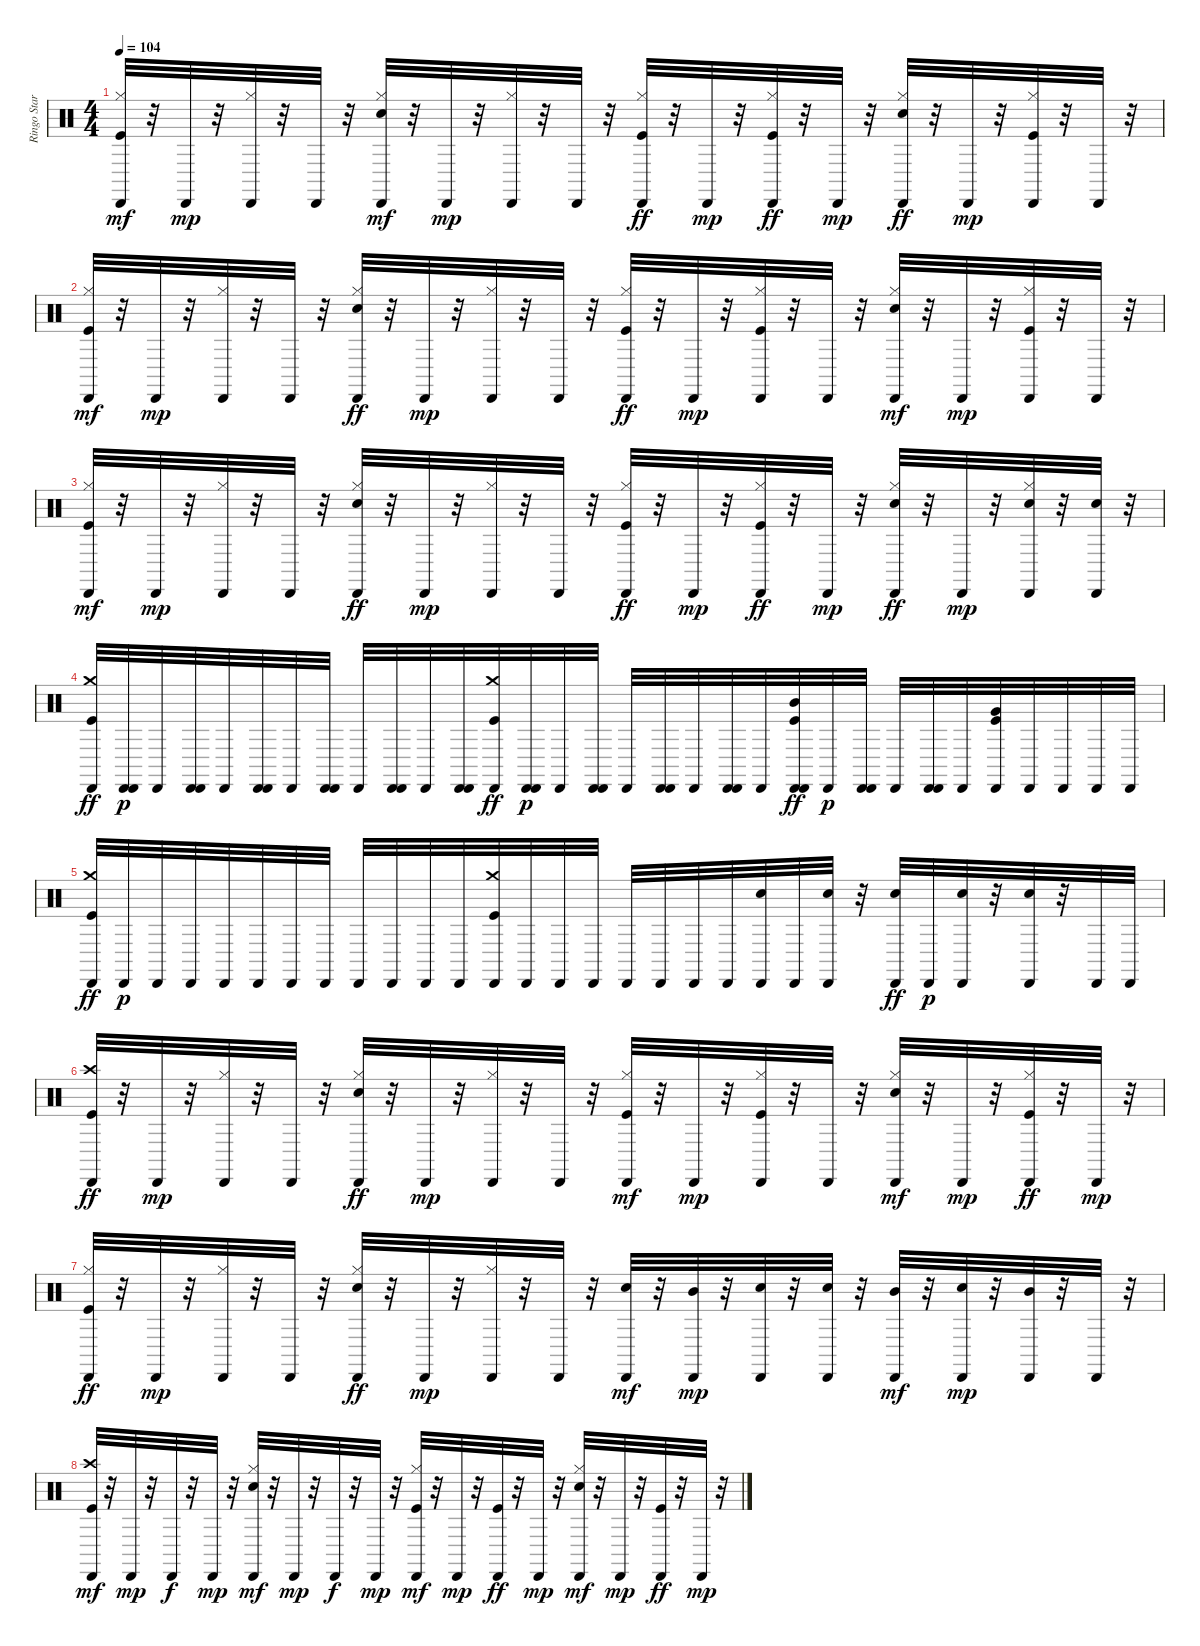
\track ("Ringo Starr - Drums" "Ringo Star") {instrument percussion}
\staff {score}
\articulation defaults
\ts (4 4)
\tempo 104
\clef neutral
\ks c
("Hi-Hat (closed)" "Kick (hit)" "Cabasa (hit)").32{dy mf} r.32 "Cabasa (hit)".32{dy mp} r.32 ("Hi-Hat (closed)" "Cabasa (hit)").32 r.32 "Cabasa (hit)".32 r.32 ("Hi-Hat (closed)" "Snare (hit) 2" "Cabasa (hit)").32{dy mf} r.32 "Cabasa (hit)".32{dy mp} r.32 ("Hi-Hat (closed)" "Cabasa (hit)").32 r.32 "Cabasa (hit)".32 r.32 ("Hi-Hat (closed)" "Cabasa (hit)" "Kick (hit)").32{dy ff} r.32 "Cabasa (hit)".32{dy mp} r.32 ("Hi-Hat (closed)" "Cabasa (hit)" "Kick (hit)").32{dy ff} r.32 "Cabasa (hit)".32{dy mp} r.32 ("Hi-Hat (closed)" "Cabasa (hit)" "Snare (hit) 2").32{dy ff} r.32 "Cabasa (hit)".32{dy mp} r.32 ("Hi-Hat (closed)" "Kick (hit)" "Cabasa (hit)").32 r.32 "Cabasa (hit)".32 r.32 |
("Hi-Hat (closed)" "Kick (hit)" "Cabasa (hit)").32{dy mf} r.32 "Cabasa (hit)".32{dy mp} r.32 ("Hi-Hat (closed)" "Cabasa (hit)").32 r.32 "Cabasa (hit)".32 r.32 ("Hi-Hat (closed)" "Cabasa (hit)" "Snare (hit) 2").32{dy ff} r.32 "Cabasa (hit)".32{dy mp} r.32 ("Hi-Hat (closed)" "Cabasa (hit)").32 r.32 "Cabasa (hit)".32 r.32 ("Hi-Hat (closed)" "Cabasa (hit)" "Kick (hit)").32{dy ff} r.32 "Cabasa (hit)".32{dy mp} r.32 ("Hi-Hat (closed)" "Kick (hit)" "Cabasa (hit)").32 r.32 "Cabasa (hit)".32 r.32 ("Hi-Hat (closed)" "Snare (hit) 2" "Cabasa (hit)").32{dy mf} r.32 "Cabasa (hit)".32{dy mp} r.32 ("Hi-Hat (closed)" "Kick (hit)" "Cabasa (hit)").32 r.32 "Cabasa (hit)".32 r.32 |
("Hi-Hat (closed)" "Kick (hit)" "Cabasa (hit)").32{dy mf} r.32 "Cabasa (hit)".32{dy mp} r.32 ("Hi-Hat (closed)" "Cabasa (hit)").32 r.32 "Cabasa (hit)".32 r.32 ("Hi-Hat (closed)" "Cabasa (hit)" "Snare (hit) 2").32{dy ff} r.32 "Cabasa (hit)".32{dy mp} r.32 ("Hi-Hat (closed)" "Cabasa (hit)").32 r.32 "Cabasa (hit)".32 r.32 ("Hi-Hat (closed)" "Cabasa (hit)" "Kick (hit)").32{dy ff} r.32 "Cabasa (hit)".32{dy mp} r.32 ("Hi-Hat (closed)" "Cabasa (hit)" "Kick (hit)").32{dy ff} r.32 "Cabasa (hit)".32{dy mp} r.32 ("Hi-Hat (closed)" "Cabasa (hit)" "Snare (hit) 2").32{dy ff} r.32 "Cabasa (hit)".32{dy mp} r.32 ("Hi-Hat (closed)" "Snare (hit) 2" "Cabasa (hit)").32 r.32 ("Cabasa (hit)" "Snare (hit) 2").32 r.32 |
("Cabasa (hit)" "Crash medium (hit)" "Kick (hit)").32{dy ff} ("Cabasa (hit)" "Cabasa (hit)").32{dy p} "Cabasa (hit)".32 ("Cabasa (hit)" "Cabasa (hit)").32 "Cabasa (hit)".32 ("Cabasa (hit)" "Cabasa (hit)").32 "Cabasa (hit)".32 ("Cabasa (hit)" "Cabasa (hit)").32 "Cabasa (hit)".32 ("Cabasa (hit)" "Cabasa (hit)").32 "Cabasa (hit)".32 ("Cabasa (hit)" "Cabasa (hit)").32 ("Crash medium (hit)" "Cabasa (hit)" "Kick (hit)").32{dy ff} ("Cabasa (hit)" "Cabasa (hit)").32{dy p} "Cabasa (hit)".32 ("Cabasa (hit)" "Cabasa (hit)").32 "Cabasa (hit)".32 ("Cabasa (hit)" "Cabasa (hit)").32 "Cabasa (hit)".32 ("Cabasa (hit)" "Cabasa (hit)").32 "Cabasa (hit)".32 ("Cabasa (hit)" "Cabasa (hit)" "Kick (hit)" "Mid Tom (hit)").32{dy ff} "Cabasa (hit)".32{dy p} ("Cabasa (hit)" "Cabasa (hit)").32 "Cabasa (hit)".32 ("Cabasa (hit)" "Cabasa (hit)").32 "Cabasa (hit)".32 ("Very Low Tom (hit)" "Kick (hit)" "Cabasa (hit)").32 "Cabasa (hit)".32 "Cabasa (hit)".32 "Cabasa (hit)".32 "Cabasa (hit)".32 |
("Cabasa (hit)" "Crash medium (hit)" "Kick (hit)").32{dy ff} "Cabasa (hit)".32{dy p} "Cabasa (hit)".32 "Cabasa (hit)".32 "Cabasa (hit)".32 "Cabasa (hit)".32 "Cabasa (hit)".32 "Cabasa (hit)".32 "Cabasa (hit)".32 "Cabasa (hit)".32 "Cabasa (hit)".32 "Cabasa (hit)".32 ("Kick (hit)" "Crash medium (hit)" "Cabasa (hit)").32 "Cabasa (hit)".32 "Cabasa (hit)".32 "Cabasa (hit)".32 "Cabasa (hit)".32 "Cabasa (hit)".32 "Cabasa (hit)".32 "Cabasa (hit)".32 ("Snare (hit) 2" "Cabasa (hit)").32 "Cabasa (hit)".32 ("Snare (hit) 2" "Cabasa (hit)").32 r.32 ("Cabasa (hit)" "Snare (hit) 2").32{dy ff} "Cabasa (hit)".32{dy p} ("Snare (hit) 2" "Cabasa (hit)").32 r.32 ("Cabasa (hit)" "Snare (hit) 2").32 r.32 "Cabasa (hit)".32 "Cabasa (hit)".32 |
("Cabasa (hit)" "Kick (hit)" "Crash high (hit)").32{dy ff} r.32 "Cabasa (hit)".32{dy mp} r.32 ("Hi-Hat (closed)" "Cabasa (hit)").32 r.32 "Cabasa (hit)".32 r.32 ("Hi-Hat (closed)" "Cabasa (hit)" "Snare (hit) 2").32{dy ff} r.32 "Cabasa (hit)".32{dy mp} r.32 ("Hi-Hat (closed)" "Cabasa (hit)").32 r.32 "Cabasa (hit)".32 r.32 ("Hi-Hat (closed)" "Kick (hit)" "Cabasa (hit)").32{dy mf} r.32 "Cabasa (hit)".32{dy mp} r.32 ("Hi-Hat (closed)" "Kick (hit)" "Cabasa (hit)").32 r.32 "Cabasa (hit)".32 r.32 ("Hi-Hat (closed)" "Snare (hit) 2" "Cabasa (hit)").32{dy mf} r.32 "Cabasa (hit)".32{dy mp} r.32 ("Hi-Hat (closed)" "Cabasa (hit)" "Kick (hit)").32{dy ff} r.32 "Cabasa (hit)".32{dy mp} r.32 |
("Hi-Hat (closed)" "Cabasa (hit)" "Kick (hit)").32{dy ff} r.32 "Cabasa (hit)".32{dy mp} r.32 ("Hi-Hat (closed)" "Cabasa (hit)").32 r.32 "Cabasa (hit)".32 r.32 ("Hi-Hat (closed)" "Cabasa (hit)" "Snare (hit) 2").32{dy ff} r.32 "Cabasa (hit)".32{dy mp} r.32 ("Hi-Hat (closed)" "Cabasa (hit)").32 r.32 "Cabasa (hit)".32 r.32 ("Cabasa (hit)" "Snare (hit) 2").32{dy mf} r.32 ("Mid Tom (hit)" "Cabasa (hit)").32{dy mp} r.32 ("Snare (hit) 2" "Cabasa (hit)").32 r.32 ("Cabasa (hit)" "Snare (hit) 2").32 r.32 ("Mid Tom (hit)" "Cabasa (hit)").32{dy mf} r.32 ("Cabasa (hit)" "Snare (hit) 2").32{dy mp} r.32 ("Mid Tom (hit)" "Cabasa (hit)").32 r.32 "Cabasa (hit)".32 r.32 |
("Kick (hit)" "Crash high (hit)" "Cabasa (hit)").32{dy mf} r.32 "Cabasa (hit)".32{dy mp} r.32 "Cabasa (hit)".32{dy f} r.32 "Cabasa (hit)".32{dy mp} r.32 ("Hi-Hat (closed)" "Snare (hit) 2" "Cabasa (hit)").32{dy mf} r.32 "Cabasa (hit)".32{dy mp} r.32 "Cabasa (hit)".32{dy f} r.32 "Cabasa (hit)".32{dy mp} r.32 ("Hi-Hat (closed)" "Kick (hit)" "Cabasa (hit)").32{dy mf} r.32 "Cabasa (hit)".32{dy mp} r.32 ("Cabasa (hit)" "Kick (hit)").32{dy ff} r.32 "Cabasa (hit)".32{dy mp} r.32 ("Hi-Hat (closed)" "Snare (hit) 2" "Cabasa (hit)").32{dy mf} r.32 "Cabasa (hit)".32{dy mp} r.32 ("Cabasa (hit)" "Kick (hit)").32{dy ff} r.32 "Cabasa (hit)".32{dy mp} r.32
